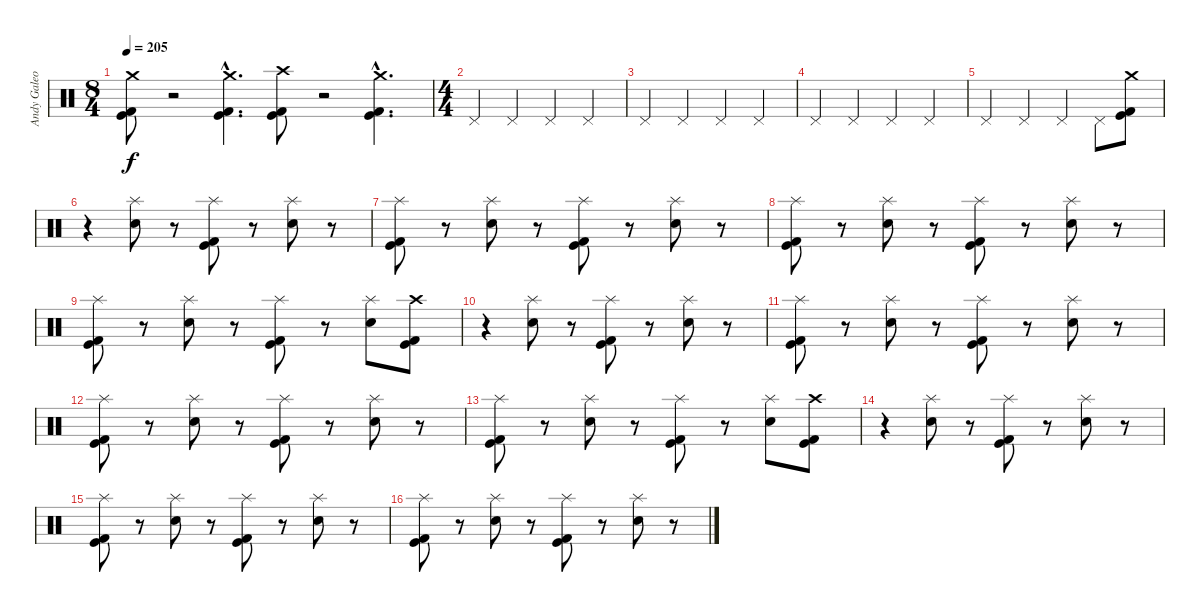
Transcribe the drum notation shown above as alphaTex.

\track ("Andy Galeon - Drums" "Andy Galeo") {instrument percussion}
\staff {score}
\articulation defaults
\ts (8 4)
\tempo 205
\clef neutral
\ks c
("Crash medium (hit)" "Kick (hit) 2" "Kick (hit)").8{dy f} r.2 ("Crash medium (hit)"{hac} "Kick (hit)"{hac} "Kick (hit) 2"{hac}).4{d} ("Crash high (hit)" "Kick (hit) 2" "Kick (hit)").8 r.2 ("Crash medium (hit)"{hac} "Kick (hit) 2"{hac} "Kick (hit)"{hac}).4{d} |
\ts (4 4)
"Pedal Hi-Hat (hit)".4 "Pedal Hi-Hat (hit)".4 "Pedal Hi-Hat (hit)".4 "Pedal Hi-Hat (hit)".4 |
\section ("" "")
"Pedal Hi-Hat (hit)".4 "Pedal Hi-Hat (hit)".4 "Pedal Hi-Hat (hit)".4 "Pedal Hi-Hat (hit)".4 |
\section ("" "")
"Pedal Hi-Hat (hit)".4 "Pedal Hi-Hat (hit)".4 "Pedal Hi-Hat (hit)".4 "Pedal Hi-Hat (hit)".4 |
"Pedal Hi-Hat (hit)".4 "Pedal Hi-Hat (hit)".4 "Pedal Hi-Hat (hit)".4 "Pedal Hi-Hat (hit)".8 ("Crash medium (hit)" "Kick (hit) 2" "Kick (hit)").8 |
r.4 ("Splash (hit)" "Electric Snare (hit)").8 r.8 ("Splash (hit)" "Kick (hit) 2" "Kick (hit)").8 r.8 ("Splash (hit)" "Electric Snare (hit)").8 r.8 |
("Splash (hit)" "Kick (hit) 2" "Kick (hit)").8 r.8 ("Splash (hit)" "Electric Snare (hit)").8 r.8 ("Splash (hit)" "Kick (hit) 2" "Kick (hit)").8 r.8 ("Splash (hit)" "Electric Snare (hit)").8 r.8 |
("Splash (hit)" "Kick (hit) 2" "Kick (hit)").8 r.8 ("Splash (hit)" "Electric Snare (hit)").8 r.8 ("Splash (hit)" "Kick (hit) 2" "Kick (hit)").8 r.8 ("Splash (hit)" "Electric Snare (hit)").8 r.8 |
("Splash (hit)" "Kick (hit) 2" "Kick (hit)").8 r.8 ("Splash (hit)" "Electric Snare (hit)").8 r.8 ("Splash (hit)" "Kick (hit) 2" "Kick (hit)").8 r.8 ("Splash (hit)" "Electric Snare (hit)").8 ("Crash high (hit)" "Kick (hit)" "Kick (hit) 2").8 |
r.4 ("Splash (hit)" "Electric Snare (hit)").8 r.8 ("Splash (hit)" "Kick (hit) 2" "Kick (hit)").8 r.8 ("Splash (hit)" "Electric Snare (hit)").8 r.8 |
("Splash (hit)" "Kick (hit) 2" "Kick (hit)").8 r.8 ("Splash (hit)" "Electric Snare (hit)").8 r.8 ("Splash (hit)" "Kick (hit) 2" "Kick (hit)").8 r.8 ("Splash (hit)" "Electric Snare (hit)").8 r.8 |
("Splash (hit)" "Kick (hit) 2" "Kick (hit)").8 r.8 ("Splash (hit)" "Electric Snare (hit)").8 r.8 ("Splash (hit)" "Kick (hit) 2" "Kick (hit)").8 r.8 ("Splash (hit)" "Electric Snare (hit)").8 r.8 |
("Splash (hit)" "Kick (hit) 2" "Kick (hit)").8 r.8 ("Splash (hit)" "Electric Snare (hit)").8 r.8 ("Splash (hit)" "Kick (hit) 2" "Kick (hit)").8 r.8 ("Splash (hit)" "Electric Snare (hit)").8 ("Crash high (hit)" "Kick (hit)" "Kick (hit) 2").8 |
r.4 ("Splash (hit)" "Electric Snare (hit)").8 r.8 ("Splash (hit)" "Kick (hit) 2" "Kick (hit)").8 r.8 ("Splash (hit)" "Electric Snare (hit)").8 r.8 |
("Splash (hit)" "Kick (hit) 2" "Kick (hit)").8 r.8 ("Splash (hit)" "Electric Snare (hit)").8 r.8 ("Splash (hit)" "Kick (hit) 2" "Kick (hit)").8 r.8 ("Splash (hit)" "Electric Snare (hit)").8 r.8 |
("Splash (hit)" "Kick (hit) 2" "Kick (hit)").8 r.8 ("Splash (hit)" "Electric Snare (hit)").8 r.8 ("Splash (hit)" "Kick (hit) 2" "Kick (hit)").8 r.8 ("Splash (hit)" "Electric Snare (hit)").8 r.8
